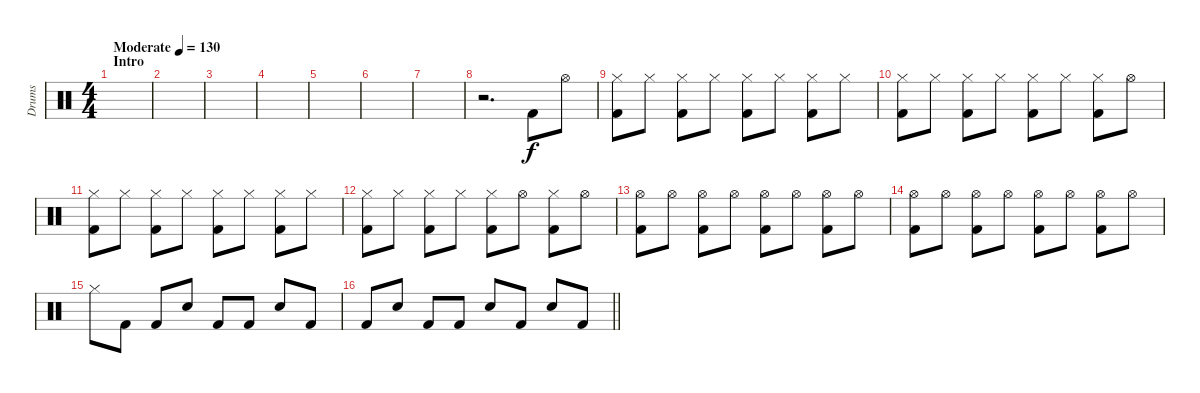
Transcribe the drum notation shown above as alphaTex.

\track ("Drums" "Drums") {instrument percussion}
\staff {score}
\articulation defaults
\ts (4 4)
\section ("" "Intro")
\tempo (130 "Moderate")
\clef neutral
\ks c
|
|
|
|
|
|
|
r.2{d} "Kick (hit) 2".8 "Hi-Hat (open)".8 |
("Hi-Hat (closed)" "Kick (hit) 2").8 "Hi-Hat (closed)".8 ("Hi-Hat (closed)" "Kick (hit) 2").8 "Hi-Hat (closed)".8 ("Hi-Hat (closed)" "Kick (hit) 2").8 "Hi-Hat (closed)".8 ("Hi-Hat (closed)" "Kick (hit) 2").8 "Hi-Hat (closed)".8 |
("Hi-Hat (closed)" "Kick (hit) 2").8 "Hi-Hat (closed)".8 ("Hi-Hat (closed)" "Kick (hit) 2").8 "Hi-Hat (closed)".8 ("Hi-Hat (closed)" "Kick (hit) 2").8 "Hi-Hat (closed)".8 ("Hi-Hat (closed)" "Kick (hit) 2").8 "Hi-Hat (open)".8 |
("Hi-Hat (closed)" "Kick (hit) 2").8 "Hi-Hat (closed)".8 ("Hi-Hat (closed)" "Kick (hit) 2").8 "Hi-Hat (closed)".8 ("Hi-Hat (closed)" "Kick (hit) 2").8 "Hi-Hat (closed)".8 ("Hi-Hat (closed)" "Kick (hit) 2").8 "Hi-Hat (closed)".8 |
("Hi-Hat (closed)" "Kick (hit) 2").8 "Hi-Hat (closed)".8 ("Hi-Hat (closed)" "Kick (hit) 2").8 "Hi-Hat (closed)".8 ("Hi-Hat (closed)" "Kick (hit) 2").8 "Hi-Hat (open)".8 ("Hi-Hat (closed)" "Kick (hit) 2").8 "Hi-Hat (open)".8 |
("Hi-Hat (open)" "Kick (hit) 2").8 "Hi-Hat (open)".8 ("Hi-Hat (open)" "Kick (hit) 2").8 "Hi-Hat (open)".8 ("Hi-Hat (open)" "Kick (hit) 2").8 "Hi-Hat (open)".8 ("Hi-Hat (open)" "Kick (hit) 2").8 "Hi-Hat (open)".8 |
("Hi-Hat (open)" "Kick (hit) 2").8 "Hi-Hat (open)".8 ("Hi-Hat (open)" "Kick (hit) 2").8 "Hi-Hat (open)".8 ("Hi-Hat (open)" "Kick (hit) 2").8 "Hi-Hat (open)".8 ("Hi-Hat (open)" "Kick (hit) 2").8 "Hi-Hat (open)".8 |
"Hi-Hat (closed)".8 "Kick (hit) 2".8 "Kick (hit) 2".8 "Snare (hit) 2".8 "Kick (hit) 2".8 "Kick (hit) 2".8 "Snare (hit) 2".8 "Kick (hit) 2".8 |
\barLineRight lightlight "Kick (hit) 2".8 "Snare (hit) 2".8 "Kick (hit) 2".8 "Kick (hit) 2".8 "Snare (hit) 2".8 "Kick (hit) 2".8 "Snare (hit) 2".8 "Kick (hit) 2".8
